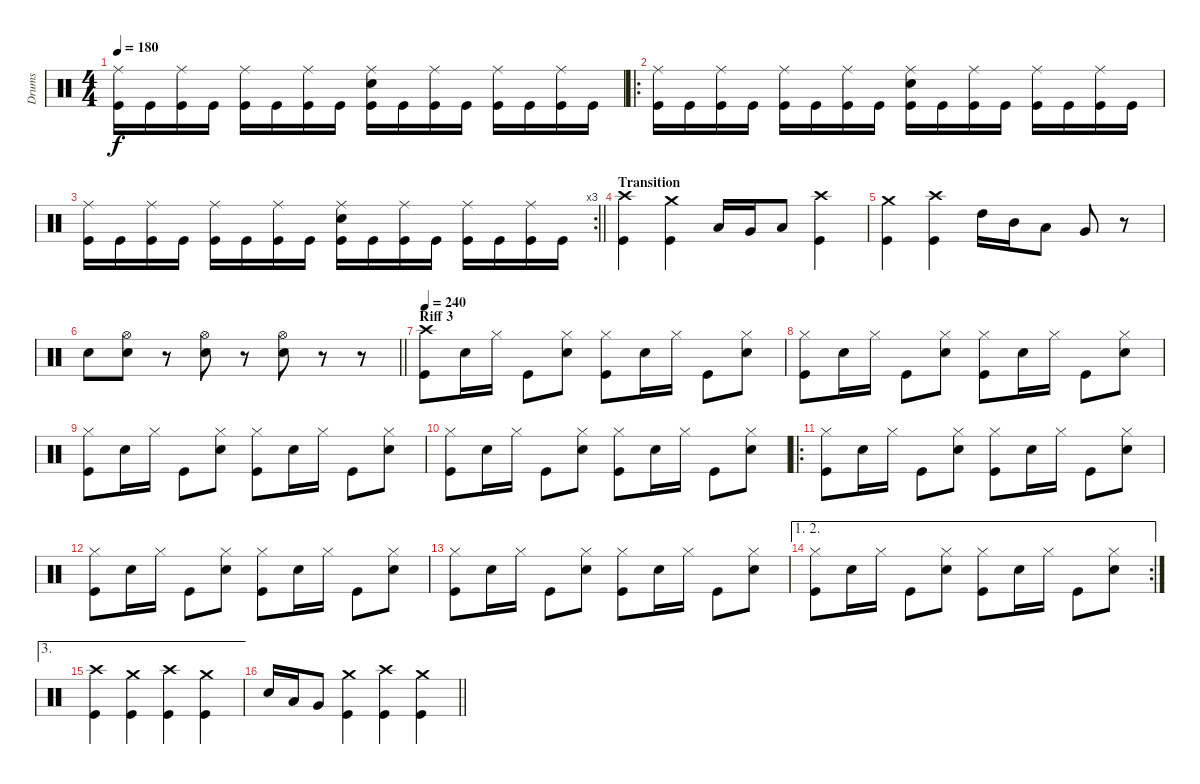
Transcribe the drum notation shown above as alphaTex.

\track ("Drums" "Drums") {instrument percussion}
\staff {score}
\articulation defaults
\ts (4 4)
\tempo 180
\clef neutral
\ks c
("Ride (middle)" "Kick (hit)").16{dy f} "Kick (hit)".16 ("Ride (middle)" "Kick (hit)").16 "Kick (hit)".16 ("Ride (middle)" "Kick (hit)").16 "Kick (hit)".16 ("Ride (middle)" "Kick (hit)").16 "Kick (hit)".16 ("Ride (middle)" "Snare (hit) 2" "Kick (hit)").16 "Kick (hit)".16 ("Ride (middle)" "Kick (hit)").16 "Kick (hit)".16 ("Ride (middle)" "Kick (hit)").16 "Kick (hit)".16 ("Ride (middle)" "Kick (hit)").16 "Kick (hit)".16 |
\ro
("Ride (middle)" "Kick (hit)").16 "Kick (hit)".16 ("Ride (middle)" "Kick (hit)").16 "Kick (hit)".16 ("Ride (middle)" "Kick (hit)").16 "Kick (hit)".16 ("Ride (middle)" "Kick (hit)").16 "Kick (hit)".16 ("Ride (middle)" "Snare (hit) 2" "Kick (hit)").16 "Kick (hit)".16 ("Ride (middle)" "Kick (hit)").16 "Kick (hit)".16 ("Ride (middle)" "Kick (hit)").16 "Kick (hit)".16 ("Ride (middle)" "Kick (hit)").16 "Kick (hit)".16 |
\rc 3
\barLineRight lightlight
("Ride (middle)" "Kick (hit)").16 "Kick (hit)".16 ("Ride (middle)" "Kick (hit)").16 "Kick (hit)".16 ("Ride (middle)" "Kick (hit)").16 "Kick (hit)".16 ("Ride (middle)" "Kick (hit)").16 "Kick (hit)".16 ("Ride (middle)" "Snare (hit) 2" "Kick (hit)").16 "Kick (hit)".16 ("Ride (middle)" "Kick (hit)").16 "Kick (hit)".16 ("Ride (middle)" "Kick (hit)").16 "Kick (hit)".16 ("Ride (middle)" "Kick (hit)").16 "Kick (hit)".16 |
\section ("" "Transition")
("Crash high (hit)" "Kick (hit)").4 ("Crash medium (hit)" "Kick (hit)").4 "Low Tom (hit)".16 "Very Low Tom (hit)".16 "Low Floor Tom (hit)".8 ("Crash high (hit)" "Kick (hit)").4 |
("Crash medium (hit)" "Kick (hit)").4 ("Crash high (hit)" "Kick (hit)").4 "High Tom (hit)".16 "Mid Tom (hit)".16 "Low Tom (hit)".8 "Very Low Tom (hit)".8 r.8 |
\barLineRight lightlight "Snare (hit) 2".8
("Hi-Hat (open)" "Snare (hit) 2").8 r.8 ("Hi-Hat (open)" "Snare (hit) 2").8 r.8 ("Hi-Hat (open)" "Snare (hit) 2").8 r.8 r.8 |
\section ("" "Riff 3")
\tempo 240
("Crash high (hit)" "Kick (hit)").8 "Snare (hit) 2".16 "Hi-Hat (closed)".16 "Kick (hit)".8 ("Hi-Hat (closed)" "Snare (hit) 2").8 ("Hi-Hat (closed)" "Kick (hit)").8 "Snare (hit) 2".16 "Hi-Hat (closed)".16 "Kick (hit)".8 ("Hi-Hat (closed)" "Snare (hit) 2").8 |
("Hi-Hat (closed)" "Kick (hit)").8 "Snare (hit) 2".16 "Hi-Hat (closed)".16 "Kick (hit)".8 ("Hi-Hat (closed)" "Snare (hit) 2").8 ("Hi-Hat (closed)" "Kick (hit)").8 "Snare (hit) 2".16 "Hi-Hat (closed)".16 "Kick (hit)".8 ("Hi-Hat (closed)" "Snare (hit) 2").8 |
("Hi-Hat (closed)" "Kick (hit)").8 "Snare (hit) 2".16 "Hi-Hat (closed)".16 "Kick (hit)".8 ("Hi-Hat (closed)" "Snare (hit) 2").8 ("Hi-Hat (closed)" "Kick (hit)").8 "Snare (hit) 2".16 "Hi-Hat (closed)".16 "Kick (hit)".8 ("Hi-Hat (closed)" "Snare (hit) 2").8 |
("Hi-Hat (closed)" "Kick (hit)").8 "Snare (hit) 2".16 "Hi-Hat (closed)".16 "Kick (hit)".8 ("Hi-Hat (closed)" "Snare (hit) 2").8 ("Hi-Hat (closed)" "Kick (hit)").8 "Snare (hit) 2".16 "Hi-Hat (closed)".16 "Kick (hit)".8 ("Hi-Hat (closed)" "Snare (hit) 2").8 |
\ro
("Hi-Hat (closed)" "Kick (hit)").8 "Snare (hit) 2".16 "Hi-Hat (closed)".16 "Kick (hit)".8 ("Hi-Hat (closed)" "Snare (hit) 2").8 ("Hi-Hat (closed)" "Kick (hit)").8 "Snare (hit) 2".16 "Hi-Hat (closed)".16 "Kick (hit)".8 ("Hi-Hat (closed)" "Snare (hit) 2").8 |
("Hi-Hat (closed)" "Kick (hit)").8 "Snare (hit) 2".16 "Hi-Hat (closed)".16 "Kick (hit)".8 ("Hi-Hat (closed)" "Snare (hit) 2").8 ("Hi-Hat (closed)" "Kick (hit)").8 "Snare (hit) 2".16 "Hi-Hat (closed)".16 "Kick (hit)".8 ("Hi-Hat (closed)" "Snare (hit) 2").8 |
("Hi-Hat (closed)" "Kick (hit)").8 "Snare (hit) 2".16 "Hi-Hat (closed)".16 "Kick (hit)".8 ("Hi-Hat (closed)" "Snare (hit) 2").8 ("Hi-Hat (closed)" "Kick (hit)").8 "Snare (hit) 2".16 "Hi-Hat (closed)".16 "Kick (hit)".8 ("Hi-Hat (closed)" "Snare (hit) 2").8 |
\ae (1 2)
\rc 2
("Hi-Hat (closed)" "Kick (hit)").8 "Snare (hit) 2".16 "Hi-Hat (closed)".16 "Kick (hit)".8 ("Hi-Hat (closed)" "Snare (hit) 2").8 ("Hi-Hat (closed)" "Kick (hit)").8 "Snare (hit) 2".16 "Hi-Hat (closed)".16 "Kick (hit)".8 ("Hi-Hat (closed)" "Snare (hit) 2").8 |
\ae 3
("Crash high (hit)" "Kick (hit)").4 ("Crash medium (hit)" "Kick (hit)").4 ("Crash high (hit)" "Kick (hit)").4 ("Crash medium (hit)" "Kick (hit)").4 |
\barLineRight lightlight "Snare (hit) 2".16 "Low Tom (hit)".16 "Very Low Tom (hit)".8
("Crash medium (hit)" "Kick (hit)").4 ("Crash high (hit)" "Kick (hit)").4 ("Crash medium (hit)" "Kick (hit)").4
